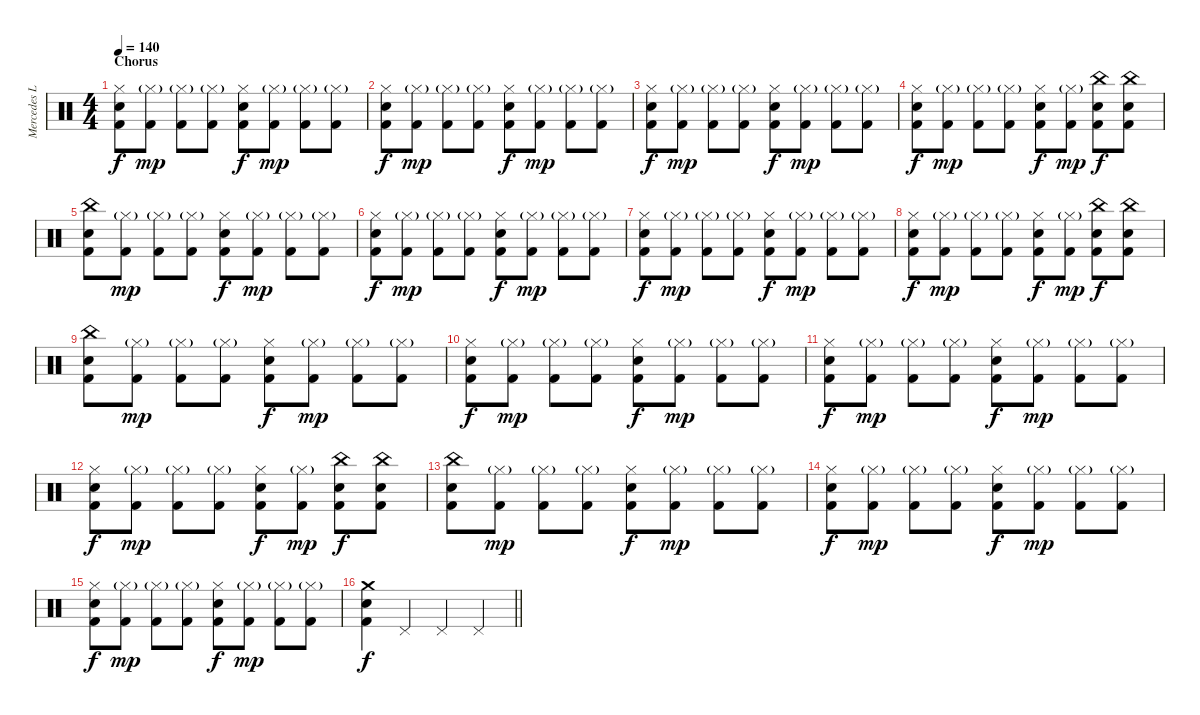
\track ("Mercedes Lander" "Mercedes L") {instrument percussion}
\staff {score}
\articulation defaults
\ts (4 4)
\section ("" "Chorus")
\tempo 140
\clef neutral
\ks c
("Hi-Hat (closed)" "Snare (hit) 2" "Kick (hit) 2").8{dy f} ("Hi-Hat (closed)"{g} "Kick (hit) 2").8{dy mp} ("Hi-Hat (closed)"{g} "Kick (hit) 2").8 ("Hi-Hat (closed)"{g} "Kick (hit) 2").8 ("Hi-Hat (closed)" "Snare (hit) 2" "Kick (hit) 2").8{dy f} ("Hi-Hat (closed)"{g} "Kick (hit) 2").8{dy mp} ("Hi-Hat (closed)"{g} "Kick (hit) 2").8 ("Hi-Hat (closed)"{g} "Kick (hit) 2").8 |
("Hi-Hat (closed)" "Snare (hit) 2" "Kick (hit) 2").8{dy f} ("Hi-Hat (closed)"{g} "Kick (hit) 2").8{dy mp} ("Hi-Hat (closed)"{g} "Kick (hit) 2").8 ("Hi-Hat (closed)"{g} "Kick (hit) 2").8 ("Hi-Hat (closed)" "Snare (hit) 2" "Kick (hit) 2").8{dy f} ("Hi-Hat (closed)"{g} "Kick (hit) 2").8{dy mp} ("Hi-Hat (closed)"{g} "Kick (hit) 2").8 ("Hi-Hat (closed)"{g} "Kick (hit) 2").8 |
("Hi-Hat (closed)" "Snare (hit) 2" "Kick (hit) 2").8{dy f} ("Hi-Hat (closed)"{g} "Kick (hit) 2").8{dy mp} ("Hi-Hat (closed)"{g} "Kick (hit) 2").8 ("Hi-Hat (closed)"{g} "Kick (hit) 2").8 ("Hi-Hat (closed)" "Snare (hit) 2" "Kick (hit) 2").8{dy f} ("Hi-Hat (closed)"{g} "Kick (hit) 2").8{dy mp} ("Hi-Hat (closed)"{g} "Kick (hit) 2").8 ("Hi-Hat (closed)"{g} "Kick (hit) 2").8 |
("Hi-Hat (closed)" "Snare (hit) 2" "Kick (hit) 2").8{dy f} ("Hi-Hat (closed)"{g} "Kick (hit) 2").8{dy mp} ("Hi-Hat (closed)"{g} "Kick (hit) 2").8 ("Hi-Hat (closed)"{g} "Kick (hit) 2").8 ("Hi-Hat (closed)" "Snare (hit) 2" "Kick (hit) 2").8{dy f} ("Hi-Hat (closed)"{g} "Kick (hit) 2").8{dy mp} ("China (hit)" "Snare (hit) 2" "Kick (hit) 2").8{dy f} ("China (hit)" "Snare (hit) 2" "Kick (hit) 2").8 |
("China (hit)" "Snare (hit) 2" "Kick (hit) 2").8 ("Hi-Hat (closed)"{g} "Kick (hit) 2").8{dy mp} ("Hi-Hat (closed)"{g} "Kick (hit) 2").8 ("Hi-Hat (closed)"{g} "Kick (hit) 2").8 ("Hi-Hat (closed)" "Snare (hit) 2" "Kick (hit) 2").8{dy f} ("Hi-Hat (closed)"{g} "Kick (hit) 2").8{dy mp} ("Hi-Hat (closed)"{g} "Kick (hit) 2").8 ("Hi-Hat (closed)"{g} "Kick (hit) 2").8 |
("Hi-Hat (closed)" "Snare (hit) 2" "Kick (hit) 2").8{dy f} ("Hi-Hat (closed)"{g} "Kick (hit) 2").8{dy mp} ("Hi-Hat (closed)"{g} "Kick (hit) 2").8 ("Hi-Hat (closed)"{g} "Kick (hit) 2").8 ("Hi-Hat (closed)" "Snare (hit) 2" "Kick (hit) 2").8{dy f} ("Hi-Hat (closed)"{g} "Kick (hit) 2").8{dy mp} ("Hi-Hat (closed)"{g} "Kick (hit) 2").8 ("Hi-Hat (closed)"{g} "Kick (hit) 2").8 |
("Hi-Hat (closed)" "Snare (hit) 2" "Kick (hit) 2").8{dy f} ("Hi-Hat (closed)"{g} "Kick (hit) 2").8{dy mp} ("Hi-Hat (closed)"{g} "Kick (hit) 2").8 ("Hi-Hat (closed)"{g} "Kick (hit) 2").8 ("Hi-Hat (closed)" "Snare (hit) 2" "Kick (hit) 2").8{dy f} ("Hi-Hat (closed)"{g} "Kick (hit) 2").8{dy mp} ("Hi-Hat (closed)"{g} "Kick (hit) 2").8 ("Hi-Hat (closed)"{g} "Kick (hit) 2").8 |
("Hi-Hat (closed)" "Snare (hit) 2" "Kick (hit) 2").8{dy f} ("Hi-Hat (closed)"{g} "Kick (hit) 2").8{dy mp} ("Hi-Hat (closed)"{g} "Kick (hit) 2").8 ("Hi-Hat (closed)"{g} "Kick (hit) 2").8 ("Hi-Hat (closed)" "Snare (hit) 2" "Kick (hit) 2").8{dy f} ("Hi-Hat (closed)"{g} "Kick (hit) 2").8{dy mp} ("China (hit)" "Snare (hit) 2" "Kick (hit) 2").8{dy f} ("China (hit)" "Snare (hit) 2" "Kick (hit) 2").8 |
("China (hit)" "Snare (hit) 2" "Kick (hit) 2").8 ("Hi-Hat (closed)"{g} "Kick (hit) 2").8{dy mp} ("Hi-Hat (closed)"{g} "Kick (hit) 2").8 ("Hi-Hat (closed)"{g} "Kick (hit) 2").8 ("Hi-Hat (closed)" "Snare (hit) 2" "Kick (hit) 2").8{dy f} ("Hi-Hat (closed)"{g} "Kick (hit) 2").8{dy mp} ("Hi-Hat (closed)"{g} "Kick (hit) 2").8 ("Hi-Hat (closed)"{g} "Kick (hit) 2").8 |
("Hi-Hat (closed)" "Snare (hit) 2" "Kick (hit) 2").8{dy f} ("Hi-Hat (closed)"{g} "Kick (hit) 2").8{dy mp} ("Hi-Hat (closed)"{g} "Kick (hit) 2").8 ("Hi-Hat (closed)"{g} "Kick (hit) 2").8 ("Hi-Hat (closed)" "Snare (hit) 2" "Kick (hit) 2").8{dy f} ("Hi-Hat (closed)"{g} "Kick (hit) 2").8{dy mp} ("Hi-Hat (closed)"{g} "Kick (hit) 2").8 ("Hi-Hat (closed)"{g} "Kick (hit) 2").8 |
("Hi-Hat (closed)" "Snare (hit) 2" "Kick (hit) 2").8{dy f} ("Hi-Hat (closed)"{g} "Kick (hit) 2").8{dy mp} ("Hi-Hat (closed)"{g} "Kick (hit) 2").8 ("Hi-Hat (closed)"{g} "Kick (hit) 2").8 ("Hi-Hat (closed)" "Snare (hit) 2" "Kick (hit) 2").8{dy f} ("Hi-Hat (closed)"{g} "Kick (hit) 2").8{dy mp} ("Hi-Hat (closed)"{g} "Kick (hit) 2").8 ("Hi-Hat (closed)"{g} "Kick (hit) 2").8 |
("Hi-Hat (closed)" "Snare (hit) 2" "Kick (hit) 2").8{dy f} ("Hi-Hat (closed)"{g} "Kick (hit) 2").8{dy mp} ("Hi-Hat (closed)"{g} "Kick (hit) 2").8 ("Hi-Hat (closed)"{g} "Kick (hit) 2").8 ("Hi-Hat (closed)" "Snare (hit) 2" "Kick (hit) 2").8{dy f} ("Hi-Hat (closed)"{g} "Kick (hit) 2").8{dy mp} ("China (hit)" "Snare (hit) 2" "Kick (hit) 2").8{dy f} ("China (hit)" "Snare (hit) 2" "Kick (hit) 2").8 |
("China (hit)" "Snare (hit) 2" "Kick (hit) 2").8 ("Hi-Hat (closed)"{g} "Kick (hit) 2").8{dy mp} ("Hi-Hat (closed)"{g} "Kick (hit) 2").8 ("Hi-Hat (closed)"{g} "Kick (hit) 2").8 ("Hi-Hat (closed)" "Snare (hit) 2" "Kick (hit) 2").8{dy f} ("Hi-Hat (closed)"{g} "Kick (hit) 2").8{dy mp} ("Hi-Hat (closed)"{g} "Kick (hit) 2").8 ("Hi-Hat (closed)"{g} "Kick (hit) 2").8 |
("Hi-Hat (closed)" "Snare (hit) 2" "Kick (hit) 2").8{dy f} ("Hi-Hat (closed)"{g} "Kick (hit) 2").8{dy mp} ("Hi-Hat (closed)"{g} "Kick (hit) 2").8 ("Hi-Hat (closed)"{g} "Kick (hit) 2").8 ("Hi-Hat (closed)" "Snare (hit) 2" "Kick (hit) 2").8{dy f} ("Hi-Hat (closed)"{g} "Kick (hit) 2").8{dy mp} ("Hi-Hat (closed)"{g} "Kick (hit) 2").8 ("Hi-Hat (closed)"{g} "Kick (hit) 2").8 |
("Hi-Hat (closed)" "Snare (hit) 2" "Kick (hit) 2").8{dy f} ("Hi-Hat (closed)"{g} "Kick (hit) 2").8{dy mp} ("Hi-Hat (closed)"{g} "Kick (hit) 2").8 ("Hi-Hat (closed)"{g} "Kick (hit) 2").8 ("Hi-Hat (closed)" "Snare (hit) 2" "Kick (hit) 2").8{dy f} ("Hi-Hat (closed)"{g} "Kick (hit) 2").8{dy mp} ("Hi-Hat (closed)"{g} "Kick (hit) 2").8 ("Hi-Hat (closed)"{g} "Kick (hit) 2").8 |
\barLineRight lightlight
("Crash medium (hit)" "Snare (hit) 2" "Kick (hit) 2").4{dy f} "Pedal Hi-Hat (hit)".4 "Pedal Hi-Hat (hit)".4 "Pedal Hi-Hat (hit)".4
